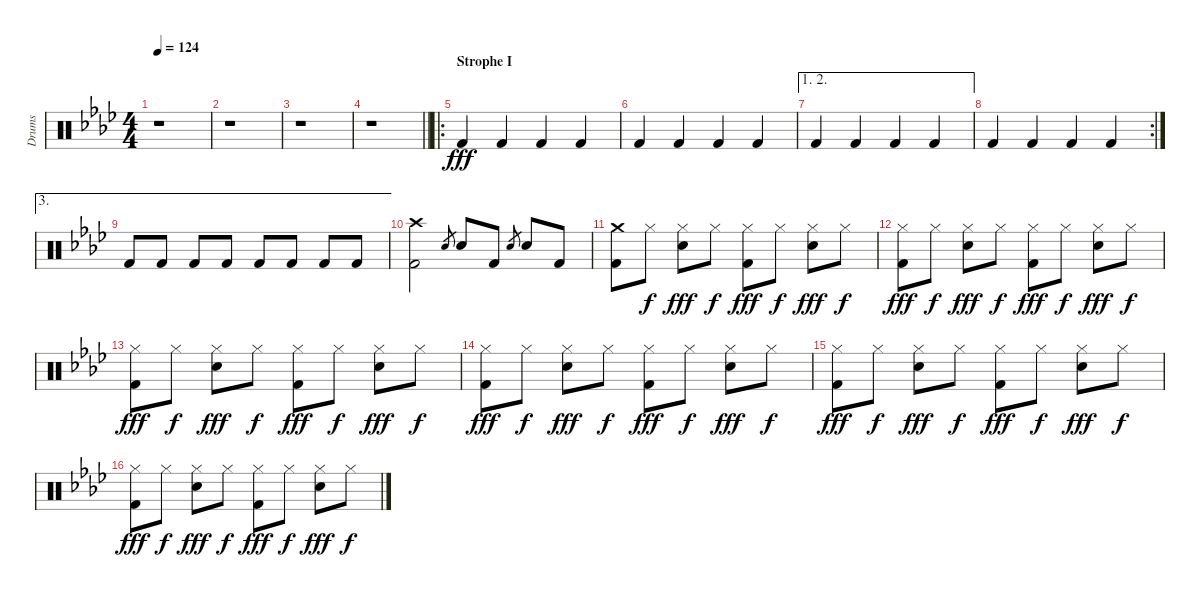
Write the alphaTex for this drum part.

\track ("Drums" "Drums") {instrument percussion}
\staff {score}
\articulation defaults
\ts (4 4)
\tempo 124
\clef neutral
\ks ab
r.1{dy fff} |
r.1 |
r.1 |
\barLineRight lightlight
r.1 |
\ro
\section ("" "Strophe I")
"Kick (hit) 2".4 "Kick (hit) 2".4 "Kick (hit) 2".4 "Kick (hit) 2".4 |
"Kick (hit) 2".4 "Kick (hit) 2".4 "Kick (hit) 2".4 "Kick (hit) 2".4 |
\ae (1 2)
"Kick (hit) 2".4 "Kick (hit) 2".4 "Kick (hit) 2".4 "Kick (hit) 2".4 |
\rc 2 "Kick (hit) 2".4 "Kick (hit) 2".4 "Kick (hit) 2".4 "Kick (hit) 2".4
|
\ae 3 "Kick (hit) 2".8 "Kick (hit) 2".8 "Kick (hit) 2".8 "Kick (hit) 2".8 "Kick (hit) 2".8 "Kick (hit) 2".8 "Kick (hit) 2".8 "Kick (hit) 2".8
|
("Crash high (hit)" "Kick (hit) 2").2 "Snare (hit) 2".8{gr} "Snare (hit) 2".8 "Kick (hit) 2".8 "Snare (hit) 2".8{gr} "Snare (hit) 2".8 "Kick (hit) 2".8 |
("Crash medium (hit)" "Kick (hit) 2").8 "Hi-Hat (closed)".8{dy f} ("Hi-Hat (closed)" "Snare (hit) 2").8{dy fff} "Hi-Hat (closed)".8{dy f} ("Hi-Hat (closed)" "Kick (hit) 2").8{dy fff} "Hi-Hat (closed)".8{dy f} ("Hi-Hat (closed)" "Snare (hit) 2").8{dy fff} "Hi-Hat (closed)".8{dy f} |
("Hi-Hat (closed)" "Kick (hit) 2").8{dy fff} "Hi-Hat (closed)".8{dy f} ("Hi-Hat (closed)" "Snare (hit) 2").8{dy fff} "Hi-Hat (closed)".8{dy f} ("Hi-Hat (closed)" "Kick (hit) 2").8{dy fff} "Hi-Hat (closed)".8{dy f} ("Hi-Hat (closed)" "Snare (hit) 2").8{dy fff} "Hi-Hat (closed)".8{dy f} |
("Hi-Hat (closed)" "Kick (hit) 2").8{dy fff} "Hi-Hat (closed)".8{dy f} ("Hi-Hat (closed)" "Snare (hit) 2").8{dy fff} "Hi-Hat (closed)".8{dy f} ("Hi-Hat (closed)" "Kick (hit) 2").8{dy fff} "Hi-Hat (closed)".8{dy f} ("Hi-Hat (closed)" "Snare (hit) 2").8{dy fff} "Hi-Hat (closed)".8{dy f} |
("Hi-Hat (closed)" "Kick (hit) 2").8{dy fff} "Hi-Hat (closed)".8{dy f} ("Hi-Hat (closed)" "Snare (hit) 2").8{dy fff} "Hi-Hat (closed)".8{dy f} ("Hi-Hat (closed)" "Kick (hit) 2").8{dy fff} "Hi-Hat (closed)".8{dy f} ("Hi-Hat (closed)" "Snare (hit) 2").8{dy fff} "Hi-Hat (closed)".8{dy f} |
("Hi-Hat (closed)" "Kick (hit) 2").8{dy fff} "Hi-Hat (closed)".8{dy f} ("Hi-Hat (closed)" "Snare (hit) 2").8{dy fff} "Hi-Hat (closed)".8{dy f} ("Hi-Hat (closed)" "Kick (hit) 2").8{dy fff} "Hi-Hat (closed)".8{dy f} ("Hi-Hat (closed)" "Snare (hit) 2").8{dy fff} "Hi-Hat (closed)".8{dy f} |
("Hi-Hat (closed)" "Kick (hit) 2").8{dy fff} "Hi-Hat (closed)".8{dy f} ("Hi-Hat (closed)" "Snare (hit) 2").8{dy fff} "Hi-Hat (closed)".8{dy f} ("Hi-Hat (closed)" "Kick (hit) 2").8{dy fff} "Hi-Hat (closed)".8{dy f} ("Hi-Hat (closed)" "Snare (hit) 2").8{dy fff} "Hi-Hat (closed)".8{dy f}
